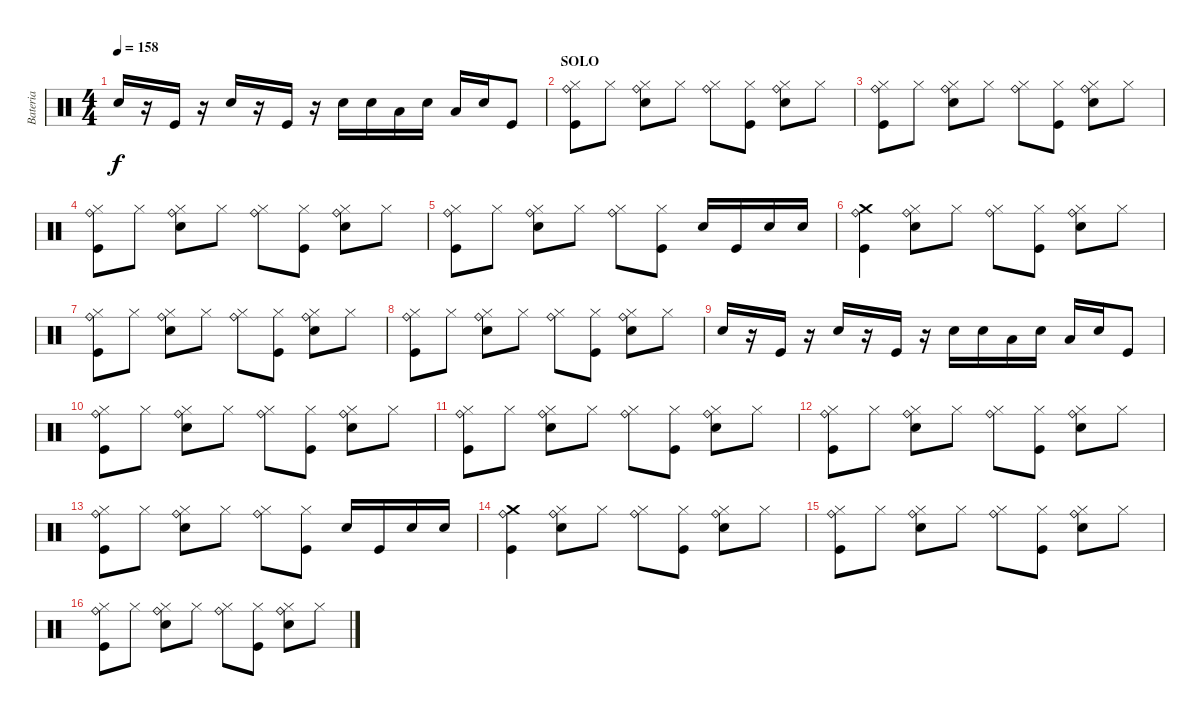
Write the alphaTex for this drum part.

\track ("Bateria" "Bateria") {instrument percussion}
\staff {score}
\articulation defaults
\ts (4 4)
\tempo 158
\clef neutral
\ks c "Electric Snare (hit)".16{dy f}
r.16 "Kick (hit)".16 r.16 "Electric Snare (hit)".16 r.16 "Kick (hit)".16 r.16 "Electric Snare (hit)".16 "Electric Snare (hit)".16 "Low Tom (hit)".16 "Electric Snare (hit)".16 "Low Tom (hit)".16 "Electric Snare (hit)".16 "Kick (hit)".8 |
\section ("" "SOLO")
("Kick (hit)" "Hi-Hat (closed)" "Ride (bell)").8 "Hi-Hat (closed)".8 ("Electric Snare (hit)" "Hi-Hat (closed)" "Ride (bell)").8 "Hi-Hat (closed)".8 ("Hi-Hat (closed)" "Ride (bell)").8 ("Kick (hit)" "Hi-Hat (closed)").8 ("Electric Snare (hit)" "Hi-Hat (closed)" "Ride (bell)").8 "Hi-Hat (closed)".8 |
("Kick (hit)" "Hi-Hat (closed)" "Ride (bell)").8 "Hi-Hat (closed)".8 ("Electric Snare (hit)" "Hi-Hat (closed)" "Ride (bell)").8 "Hi-Hat (closed)".8 ("Hi-Hat (closed)" "Ride (bell)").8 ("Kick (hit)" "Hi-Hat (closed)").8 ("Electric Snare (hit)" "Hi-Hat (closed)" "Ride (bell)").8 "Hi-Hat (closed)".8 |
("Kick (hit)" "Hi-Hat (closed)" "Ride (bell)").8 "Hi-Hat (closed)".8 ("Electric Snare (hit)" "Hi-Hat (closed)" "Ride (bell)").8 "Hi-Hat (closed)".8 ("Hi-Hat (closed)" "Ride (bell)").8 ("Kick (hit)" "Hi-Hat (closed)").8 ("Electric Snare (hit)" "Hi-Hat (closed)" "Ride (bell)").8 "Hi-Hat (closed)".8 |
("Kick (hit)" "Hi-Hat (closed)" "Ride (bell)").8 "Hi-Hat (closed)".8 ("Electric Snare (hit)" "Hi-Hat (closed)" "Ride (bell)").8 "Hi-Hat (closed)".8 ("Hi-Hat (closed)" "Ride (bell)").8 ("Kick (hit)" "Hi-Hat (closed)").8 "Electric Snare (hit)".16 "Kick (hit)".16 "Snare (hit) 2".16 "Electric Snare (hit)".16 |
("Kick (hit)" "Crash medium (hit)" "Ride (bell)").4 ("Electric Snare (hit)" "Hi-Hat (closed)" "Ride (bell)").8 "Hi-Hat (closed)".8 ("Hi-Hat (closed)" "Ride (bell)").8 ("Kick (hit)" "Hi-Hat (closed)").8 ("Electric Snare (hit)" "Hi-Hat (closed)" "Ride (bell)").8 "Hi-Hat (closed)".8 |
("Kick (hit)" "Hi-Hat (closed)" "Ride (bell)").8 "Hi-Hat (closed)".8 ("Electric Snare (hit)" "Hi-Hat (closed)" "Ride (bell)").8 "Hi-Hat (closed)".8 ("Hi-Hat (closed)" "Ride (bell)").8 ("Kick (hit)" "Hi-Hat (closed)").8 ("Electric Snare (hit)" "Hi-Hat (closed)" "Ride (bell)").8 "Hi-Hat (closed)".8 |
("Kick (hit)" "Hi-Hat (closed)" "Ride (bell)").8 "Hi-Hat (closed)".8 ("Electric Snare (hit)" "Hi-Hat (closed)" "Ride (bell)").8 "Hi-Hat (closed)".8 ("Hi-Hat (closed)" "Ride (bell)").8 ("Kick (hit)" "Hi-Hat (closed)").8 ("Electric Snare (hit)" "Hi-Hat (closed)" "Ride (bell)").8 "Hi-Hat (closed)".8 |
"Electric Snare (hit)".16 r.16 "Kick (hit)".16 r.16 "Electric Snare (hit)".16 r.16 "Kick (hit)".16 r.16 "Electric Snare (hit)".16 "Electric Snare (hit)".16 "Low Tom (hit)".16 "Electric Snare (hit)".16 "Low Tom (hit)".16 "Electric Snare (hit)".16 "Kick (hit)".8 |
("Kick (hit)" "Hi-Hat (closed)" "Ride (bell)").8 "Hi-Hat (closed)".8 ("Electric Snare (hit)" "Hi-Hat (closed)" "Ride (bell)").8 "Hi-Hat (closed)".8 ("Hi-Hat (closed)" "Ride (bell)").8 ("Kick (hit)" "Hi-Hat (closed)").8 ("Electric Snare (hit)" "Hi-Hat (closed)" "Ride (bell)").8 "Hi-Hat (closed)".8 |
("Kick (hit)" "Hi-Hat (closed)" "Ride (bell)").8 "Hi-Hat (closed)".8 ("Electric Snare (hit)" "Hi-Hat (closed)" "Ride (bell)").8 "Hi-Hat (closed)".8 ("Hi-Hat (closed)" "Ride (bell)").8 ("Kick (hit)" "Hi-Hat (closed)").8 ("Electric Snare (hit)" "Hi-Hat (closed)" "Ride (bell)").8 "Hi-Hat (closed)".8 |
("Kick (hit)" "Hi-Hat (closed)" "Ride (bell)").8 "Hi-Hat (closed)".8 ("Electric Snare (hit)" "Hi-Hat (closed)" "Ride (bell)").8 "Hi-Hat (closed)".8 ("Hi-Hat (closed)" "Ride (bell)").8 ("Kick (hit)" "Hi-Hat (closed)").8 ("Electric Snare (hit)" "Hi-Hat (closed)" "Ride (bell)").8 "Hi-Hat (closed)".8 |
("Kick (hit)" "Hi-Hat (closed)" "Ride (bell)").8 "Hi-Hat (closed)".8 ("Electric Snare (hit)" "Hi-Hat (closed)" "Ride (bell)").8 "Hi-Hat (closed)".8 ("Hi-Hat (closed)" "Ride (bell)").8 ("Kick (hit)" "Hi-Hat (closed)").8 "Electric Snare (hit)".16 "Kick (hit)".16 "Snare (hit) 2".16 "Electric Snare (hit)".16 |
("Kick (hit)" "Crash medium (hit)" "Ride (bell)").4 ("Electric Snare (hit)" "Hi-Hat (closed)" "Ride (bell)").8 "Hi-Hat (closed)".8 ("Hi-Hat (closed)" "Ride (bell)").8 ("Kick (hit)" "Hi-Hat (closed)").8 ("Electric Snare (hit)" "Hi-Hat (closed)" "Ride (bell)").8 "Hi-Hat (closed)".8 |
("Kick (hit)" "Hi-Hat (closed)" "Ride (bell)").8 "Hi-Hat (closed)".8 ("Electric Snare (hit)" "Hi-Hat (closed)" "Ride (bell)").8 "Hi-Hat (closed)".8 ("Hi-Hat (closed)" "Ride (bell)").8 ("Kick (hit)" "Hi-Hat (closed)").8 ("Electric Snare (hit)" "Hi-Hat (closed)" "Ride (bell)").8 "Hi-Hat (closed)".8 |
("Kick (hit)" "Hi-Hat (closed)" "Ride (bell)").8 "Hi-Hat (closed)".8 ("Electric Snare (hit)" "Hi-Hat (closed)" "Ride (bell)").8 "Hi-Hat (closed)".8 ("Hi-Hat (closed)" "Ride (bell)").8 ("Kick (hit)" "Hi-Hat (closed)").8 ("Electric Snare (hit)" "Hi-Hat (closed)" "Ride (bell)").8 "Hi-Hat (closed)".8
